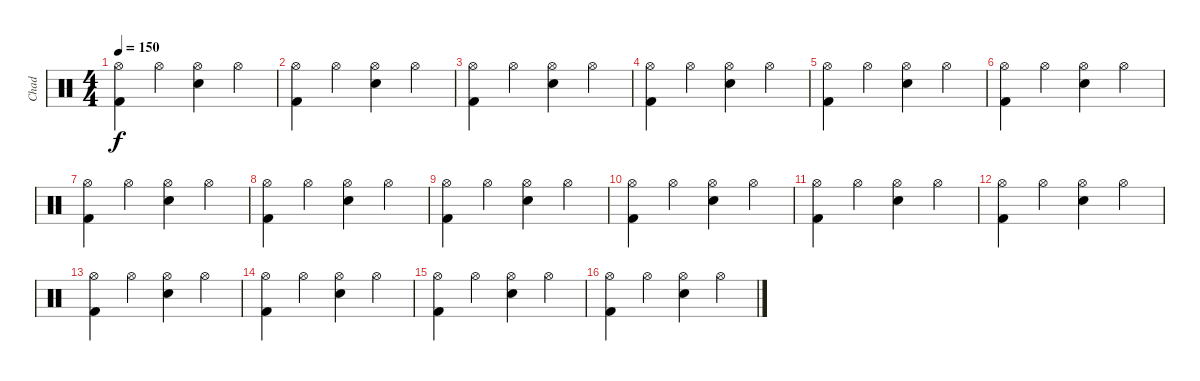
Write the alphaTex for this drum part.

\track ("Chad" "Chad") {instrument percussion}
\staff {score}
\articulation defaults
\ts (4 4)
\tempo 150
\clef neutral
\ks c
("Hi-Hat (open)" "Kick (hit) 2").4{dy f} "Hi-Hat (open)".4 ("Hi-Hat (open)" "Snare (hit) 2").4 "Hi-Hat (open)".4 |
("Hi-Hat (open)" "Kick (hit) 2").4 "Hi-Hat (open)".4 ("Hi-Hat (open)" "Snare (hit) 2").4 "Hi-Hat (open)".4 |
("Hi-Hat (open)" "Kick (hit) 2").4 "Hi-Hat (open)".4 ("Hi-Hat (open)" "Snare (hit) 2").4 "Hi-Hat (open)".4 |
("Hi-Hat (open)" "Kick (hit) 2").4 "Hi-Hat (open)".4 ("Hi-Hat (open)" "Snare (hit) 2").4 "Hi-Hat (open)".4 |
("Hi-Hat (open)" "Kick (hit) 2").4 "Hi-Hat (open)".4 ("Hi-Hat (open)" "Snare (hit) 2").4 "Hi-Hat (open)".4 |
("Hi-Hat (open)" "Kick (hit) 2").4 "Hi-Hat (open)".4 ("Hi-Hat (open)" "Snare (hit) 2").4 "Hi-Hat (open)".4 |
("Hi-Hat (open)" "Kick (hit) 2").4 "Hi-Hat (open)".4 ("Hi-Hat (open)" "Snare (hit) 2").4 "Hi-Hat (open)".4 |
("Hi-Hat (open)" "Kick (hit) 2").4 "Hi-Hat (open)".4 ("Hi-Hat (open)" "Snare (hit) 2").4 "Hi-Hat (open)".4 |
("Hi-Hat (open)" "Kick (hit) 2").4 "Hi-Hat (open)".4 ("Hi-Hat (open)" "Snare (hit) 2").4 "Hi-Hat (open)".4 |
("Hi-Hat (open)" "Kick (hit) 2").4 "Hi-Hat (open)".4 ("Hi-Hat (open)" "Snare (hit) 2").4 "Hi-Hat (open)".4 |
("Hi-Hat (open)" "Kick (hit) 2").4 "Hi-Hat (open)".4 ("Hi-Hat (open)" "Snare (hit) 2").4 "Hi-Hat (open)".4 |
("Hi-Hat (open)" "Kick (hit) 2").4 "Hi-Hat (open)".4 ("Hi-Hat (open)" "Snare (hit) 2").4 "Hi-Hat (open)".4 |
("Hi-Hat (open)" "Kick (hit) 2").4 "Hi-Hat (open)".4 ("Hi-Hat (open)" "Snare (hit) 2").4 "Hi-Hat (open)".4 |
("Hi-Hat (open)" "Kick (hit) 2").4 "Hi-Hat (open)".4 ("Hi-Hat (open)" "Snare (hit) 2").4 "Hi-Hat (open)".4 |
("Hi-Hat (open)" "Kick (hit) 2").4 "Hi-Hat (open)".4 ("Hi-Hat (open)" "Snare (hit) 2").4 "Hi-Hat (open)".4 |
("Hi-Hat (open)" "Kick (hit) 2").4 "Hi-Hat (open)".4 ("Hi-Hat (open)" "Snare (hit) 2").4 "Hi-Hat (open)".4
